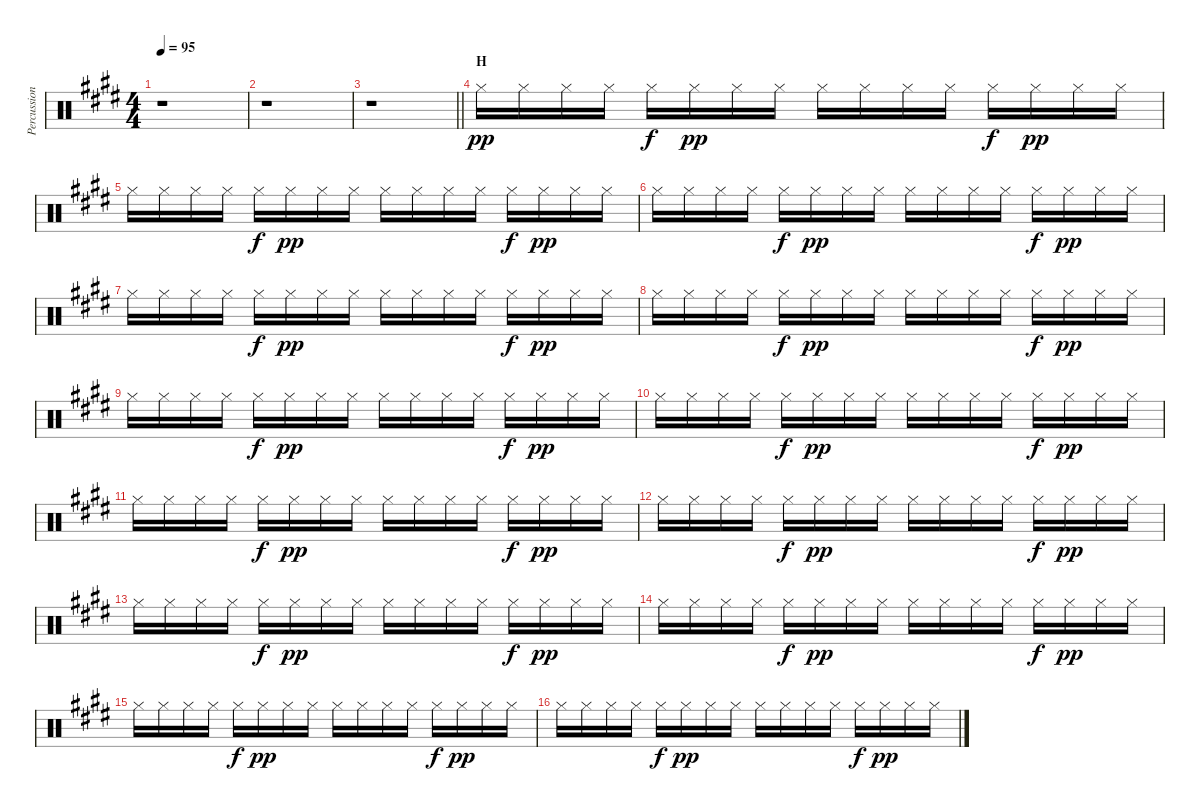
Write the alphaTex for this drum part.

\track ("Percussion" "Percussion") {instrument percussion}
\staff {score}
\articulation defaults
\ts (4 4)
\tempo 95
\clef neutral
\ks e
r.1{dy pp} |
r.1 |
\barLineRight lightlight
r.1 |
\section ("" "H")
"Hi-Hat (closed)".16 "Hi-Hat (closed)".16 "Hi-Hat (closed)".16 "Hi-Hat (closed)".16 "Hi-Hat (closed)".16{dy f} "Hi-Hat (closed)".16{dy pp} "Hi-Hat (closed)".16 "Hi-Hat (closed)".16 "Hi-Hat (closed)".16 "Hi-Hat (closed)".16 "Hi-Hat (closed)".16 "Hi-Hat (closed)".16 "Hi-Hat (closed)".16{dy f} "Hi-Hat (closed)".16{dy pp} "Hi-Hat (closed)".16 "Hi-Hat (closed)".16 |
"Hi-Hat (closed)".16 "Hi-Hat (closed)".16 "Hi-Hat (closed)".16 "Hi-Hat (closed)".16 "Hi-Hat (closed)".16{dy f} "Hi-Hat (closed)".16{dy pp} "Hi-Hat (closed)".16 "Hi-Hat (closed)".16 "Hi-Hat (closed)".16 "Hi-Hat (closed)".16 "Hi-Hat (closed)".16 "Hi-Hat (closed)".16 "Hi-Hat (closed)".16{dy f} "Hi-Hat (closed)".16{dy pp} "Hi-Hat (closed)".16 "Hi-Hat (closed)".16 |
"Hi-Hat (closed)".16 "Hi-Hat (closed)".16 "Hi-Hat (closed)".16 "Hi-Hat (closed)".16 "Hi-Hat (closed)".16{dy f} "Hi-Hat (closed)".16{dy pp} "Hi-Hat (closed)".16 "Hi-Hat (closed)".16 "Hi-Hat (closed)".16 "Hi-Hat (closed)".16 "Hi-Hat (closed)".16 "Hi-Hat (closed)".16 "Hi-Hat (closed)".16{dy f} "Hi-Hat (closed)".16{dy pp} "Hi-Hat (closed)".16 "Hi-Hat (closed)".16 |
"Hi-Hat (closed)".16 "Hi-Hat (closed)".16 "Hi-Hat (closed)".16 "Hi-Hat (closed)".16 "Hi-Hat (closed)".16{dy f} "Hi-Hat (closed)".16{dy pp} "Hi-Hat (closed)".16 "Hi-Hat (closed)".16 "Hi-Hat (closed)".16 "Hi-Hat (closed)".16 "Hi-Hat (closed)".16 "Hi-Hat (closed)".16 "Hi-Hat (closed)".16{dy f} "Hi-Hat (closed)".16{dy pp} "Hi-Hat (closed)".16 "Hi-Hat (closed)".16 |
"Hi-Hat (closed)".16 "Hi-Hat (closed)".16 "Hi-Hat (closed)".16 "Hi-Hat (closed)".16 "Hi-Hat (closed)".16{dy f} "Hi-Hat (closed)".16{dy pp} "Hi-Hat (closed)".16 "Hi-Hat (closed)".16 "Hi-Hat (closed)".16 "Hi-Hat (closed)".16 "Hi-Hat (closed)".16 "Hi-Hat (closed)".16 "Hi-Hat (closed)".16{dy f} "Hi-Hat (closed)".16{dy pp} "Hi-Hat (closed)".16 "Hi-Hat (closed)".16 |
"Hi-Hat (closed)".16 "Hi-Hat (closed)".16 "Hi-Hat (closed)".16 "Hi-Hat (closed)".16 "Hi-Hat (closed)".16{dy f} "Hi-Hat (closed)".16{dy pp} "Hi-Hat (closed)".16 "Hi-Hat (closed)".16 "Hi-Hat (closed)".16 "Hi-Hat (closed)".16 "Hi-Hat (closed)".16 "Hi-Hat (closed)".16 "Hi-Hat (closed)".16{dy f} "Hi-Hat (closed)".16{dy pp} "Hi-Hat (closed)".16 "Hi-Hat (closed)".16 |
"Hi-Hat (closed)".16 "Hi-Hat (closed)".16 "Hi-Hat (closed)".16 "Hi-Hat (closed)".16 "Hi-Hat (closed)".16{dy f} "Hi-Hat (closed)".16{dy pp} "Hi-Hat (closed)".16 "Hi-Hat (closed)".16 "Hi-Hat (closed)".16 "Hi-Hat (closed)".16 "Hi-Hat (closed)".16 "Hi-Hat (closed)".16 "Hi-Hat (closed)".16{dy f} "Hi-Hat (closed)".16{dy pp} "Hi-Hat (closed)".16 "Hi-Hat (closed)".16 |
"Hi-Hat (closed)".16 "Hi-Hat (closed)".16 "Hi-Hat (closed)".16 "Hi-Hat (closed)".16 "Hi-Hat (closed)".16{dy f} "Hi-Hat (closed)".16{dy pp} "Hi-Hat (closed)".16 "Hi-Hat (closed)".16 "Hi-Hat (closed)".16 "Hi-Hat (closed)".16 "Hi-Hat (closed)".16 "Hi-Hat (closed)".16 "Hi-Hat (closed)".16{dy f} "Hi-Hat (closed)".16{dy pp} "Hi-Hat (closed)".16 "Hi-Hat (closed)".16 |
"Hi-Hat (closed)".16 "Hi-Hat (closed)".16 "Hi-Hat (closed)".16 "Hi-Hat (closed)".16 "Hi-Hat (closed)".16{dy f} "Hi-Hat (closed)".16{dy pp} "Hi-Hat (closed)".16 "Hi-Hat (closed)".16 "Hi-Hat (closed)".16 "Hi-Hat (closed)".16 "Hi-Hat (closed)".16 "Hi-Hat (closed)".16 "Hi-Hat (closed)".16{dy f} "Hi-Hat (closed)".16{dy pp} "Hi-Hat (closed)".16 "Hi-Hat (closed)".16 |
"Hi-Hat (closed)".16 "Hi-Hat (closed)".16 "Hi-Hat (closed)".16 "Hi-Hat (closed)".16 "Hi-Hat (closed)".16{dy f} "Hi-Hat (closed)".16{dy pp} "Hi-Hat (closed)".16 "Hi-Hat (closed)".16 "Hi-Hat (closed)".16 "Hi-Hat (closed)".16 "Hi-Hat (closed)".16 "Hi-Hat (closed)".16 "Hi-Hat (closed)".16{dy f} "Hi-Hat (closed)".16{dy pp} "Hi-Hat (closed)".16 "Hi-Hat (closed)".16 |
"Hi-Hat (closed)".16 "Hi-Hat (closed)".16 "Hi-Hat (closed)".16 "Hi-Hat (closed)".16 "Hi-Hat (closed)".16{dy f} "Hi-Hat (closed)".16{dy pp} "Hi-Hat (closed)".16 "Hi-Hat (closed)".16 "Hi-Hat (closed)".16 "Hi-Hat (closed)".16 "Hi-Hat (closed)".16 "Hi-Hat (closed)".16 "Hi-Hat (closed)".16{dy f} "Hi-Hat (closed)".16{dy pp} "Hi-Hat (closed)".16 "Hi-Hat (closed)".16 |
"Hi-Hat (closed)".16 "Hi-Hat (closed)".16 "Hi-Hat (closed)".16 "Hi-Hat (closed)".16 "Hi-Hat (closed)".16{dy f} "Hi-Hat (closed)".16{dy pp} "Hi-Hat (closed)".16 "Hi-Hat (closed)".16 "Hi-Hat (closed)".16 "Hi-Hat (closed)".16 "Hi-Hat (closed)".16 "Hi-Hat (closed)".16 "Hi-Hat (closed)".16{dy f} "Hi-Hat (closed)".16{dy pp} "Hi-Hat (closed)".16 "Hi-Hat (closed)".16 |
"Hi-Hat (closed)".16 "Hi-Hat (closed)".16 "Hi-Hat (closed)".16 "Hi-Hat (closed)".16 "Hi-Hat (closed)".16{dy f} "Hi-Hat (closed)".16{dy pp} "Hi-Hat (closed)".16 "Hi-Hat (closed)".16 "Hi-Hat (closed)".16 "Hi-Hat (closed)".16 "Hi-Hat (closed)".16 "Hi-Hat (closed)".16 "Hi-Hat (closed)".16{dy f} "Hi-Hat (closed)".16{dy pp} "Hi-Hat (closed)".16 "Hi-Hat (closed)".16
